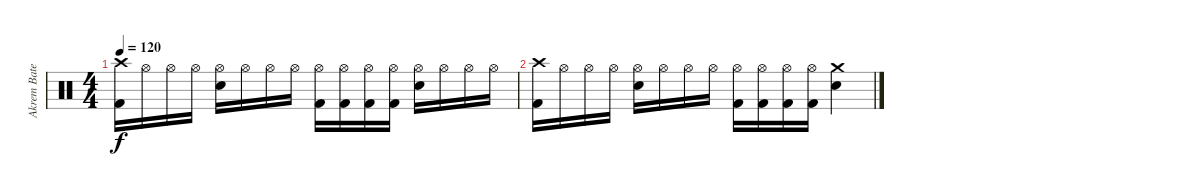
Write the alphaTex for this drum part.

\track ("Akrem Baterie" "Akrem Bate") {instrument percussion}
\staff {score}
\articulation defaults
\ts (4 4)
\tempo 120
\clef neutral
\ks c
("Crash high (hit)" "Kick (hit) 2").16{dy f} "Hi-Hat (open)".16 "Hi-Hat (open)".16 "Hi-Hat (open)".16 ("Hi-Hat (open)" "Electric Snare (hit)").16 "Hi-Hat (open)".16 "Hi-Hat (open)".16 "Hi-Hat (open)".16 ("Hi-Hat (open)" "Kick (hit) 2").16 ("Hi-Hat (open)" "Kick (hit) 2").16 ("Hi-Hat (open)" "Kick (hit) 2").16 ("Hi-Hat (open)" "Kick (hit) 2").16 ("Hi-Hat (open)" "Electric Snare (hit)").16 "Hi-Hat (open)".16 "Hi-Hat (open)".16 "Hi-Hat (open)".16 |
("Crash high (hit)" "Kick (hit) 2").16 "Hi-Hat (open)".16 "Hi-Hat (open)".16 "Hi-Hat (open)".16 ("Hi-Hat (open)" "Electric Snare (hit)").16 "Hi-Hat (open)".16 "Hi-Hat (open)".16 "Hi-Hat (open)".16 ("Hi-Hat (open)" "Kick (hit) 2").16 ("Hi-Hat (open)" "Kick (hit) 2").16 ("Hi-Hat (open)" "Kick (hit) 2").16 ("Hi-Hat (open)" "Kick (hit) 2").16 ("Crash medium (hit)" "Electric Snare (hit)").4
